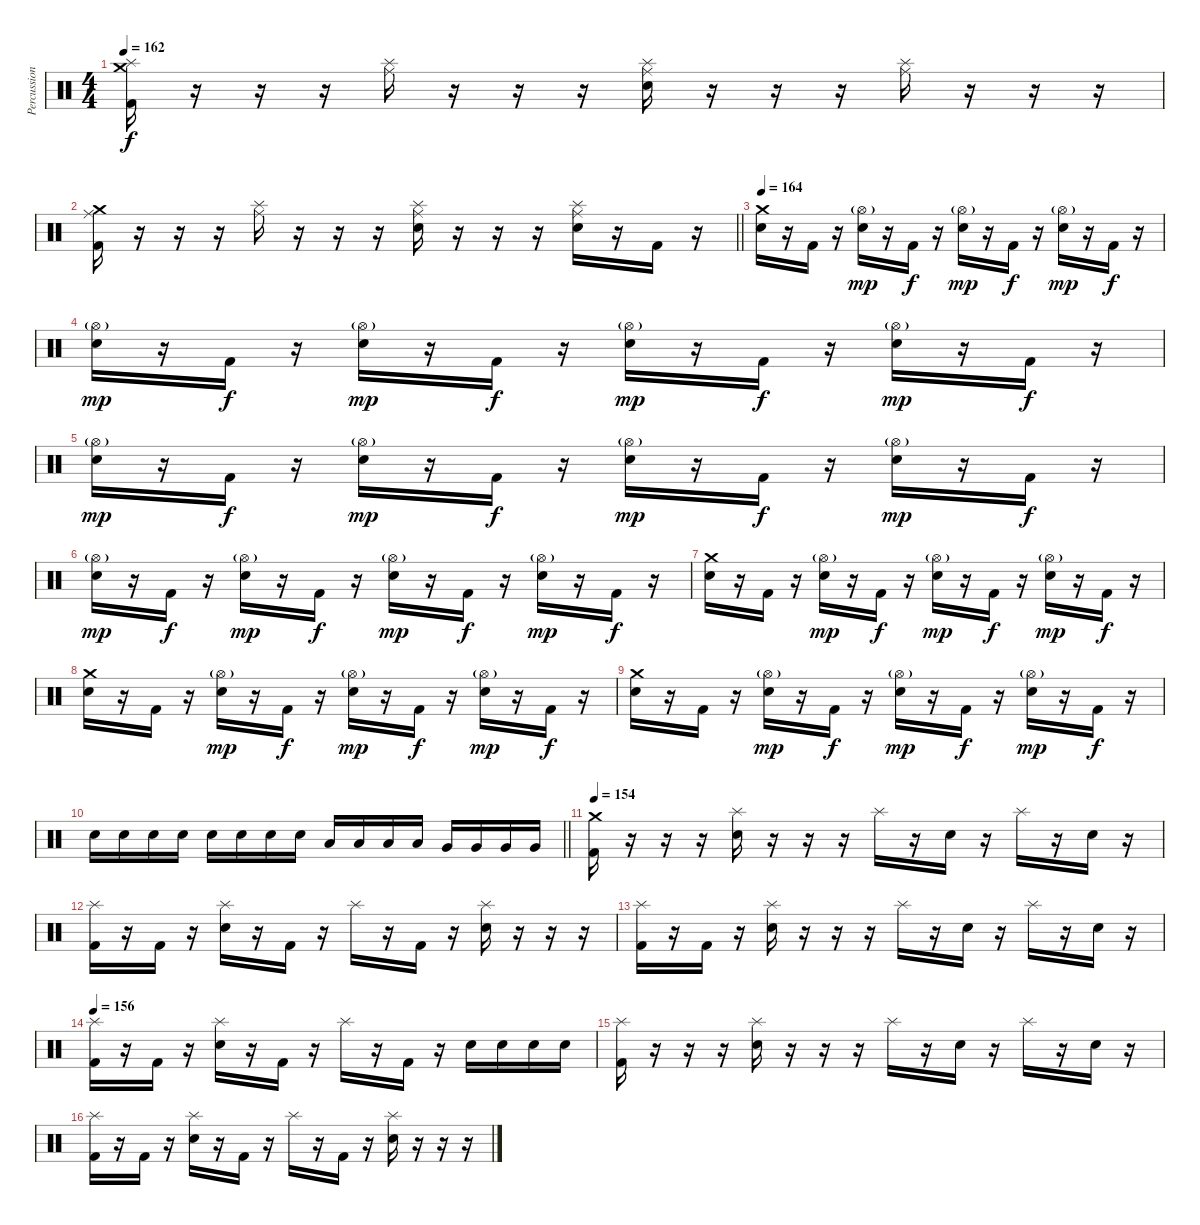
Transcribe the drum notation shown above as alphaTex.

\track ("Percussion" "Percussion") {instrument percussion}
\staff {score}
\articulation defaults
\ts (4 4)
\tempo 162
\clef neutral
\ks c
("Splash (hit)" "Crash medium (hit)" "Kick (hit) 2").16{dy f} r.16 r.16 r.16 ("Ride (middle)" "Splash (hit)").16 r.16 r.16 r.16 ("Ride (middle)" "Splash (hit)" "Electric Snare (hit)").16 r.16 r.16 r.16 ("Ride (middle)" "Splash (hit)").16 r.16 r.16 r.16 |
\barLineRight lightlight
("Ride (middle)" "Crash medium (hit)" "Kick (hit) 2").16 r.16 r.16 r.16 ("Ride (middle)" "Splash (hit)").16 r.16 r.16 r.16 ("Ride (middle)" "Splash (hit)" "Electric Snare (hit)").16 r.16 r.16 r.16 ("Ride (middle)" "Splash (hit)" "Electric Snare (hit)").16 r.16 "Kick (hit) 2".16 r.16 |
\section ("" "")
\tempo 164
("Crash medium (hit)" "Electric Snare (hit)").16 r.16 "Kick (hit) 2".16 r.16 ("Hi-Hat (open)"{g} "Electric Snare (hit)").16{dy mp} r.16 "Kick (hit) 2".16{dy f} r.16 ("Hi-Hat (open)"{g} "Electric Snare (hit)").16{dy mp} r.16 "Kick (hit) 2".16{dy f} r.16 ("Hi-Hat (open)"{g} "Electric Snare (hit)").16{dy mp} r.16 "Kick (hit) 2".16{dy f} r.16 |
("Hi-Hat (open)"{g} "Electric Snare (hit)").16{dy mp} r.16 "Kick (hit) 2".16{dy f} r.16 ("Hi-Hat (open)"{g} "Electric Snare (hit)").16{dy mp} r.16 "Kick (hit) 2".16{dy f} r.16 ("Hi-Hat (open)"{g} "Electric Snare (hit)").16{dy mp} r.16 "Kick (hit) 2".16{dy f} r.16 ("Hi-Hat (open)"{g} "Electric Snare (hit)").16{dy mp} r.16 "Kick (hit) 2".16{dy f} r.16 |
("Hi-Hat (open)"{g} "Electric Snare (hit)").16{dy mp} r.16 "Kick (hit) 2".16{dy f} r.16 ("Hi-Hat (open)"{g} "Electric Snare (hit)").16{dy mp} r.16 "Kick (hit) 2".16{dy f} r.16 ("Hi-Hat (open)"{g} "Electric Snare (hit)").16{dy mp} r.16 "Kick (hit) 2".16{dy f} r.16 ("Hi-Hat (open)"{g} "Electric Snare (hit)").16{dy mp} r.16 "Kick (hit) 2".16{dy f} r.16 |
("Hi-Hat (open)"{g} "Electric Snare (hit)").16{dy mp} r.16 "Kick (hit) 2".16{dy f} r.16 ("Hi-Hat (open)"{g} "Electric Snare (hit)").16{dy mp} r.16 "Kick (hit) 2".16{dy f} r.16 ("Hi-Hat (open)"{g} "Electric Snare (hit)").16{dy mp} r.16 "Kick (hit) 2".16{dy f} r.16 ("Hi-Hat (open)"{g} "Electric Snare (hit)").16{dy mp} r.16 "Kick (hit) 2".16{dy f} r.16 |
("Crash medium (hit)" "Electric Snare (hit)").16 r.16 "Kick (hit) 2".16 r.16 ("Hi-Hat (open)"{g} "Electric Snare (hit)").16{dy mp} r.16 "Kick (hit) 2".16{dy f} r.16 ("Hi-Hat (open)"{g} "Electric Snare (hit)").16{dy mp} r.16 "Kick (hit) 2".16{dy f} r.16 ("Hi-Hat (open)"{g} "Electric Snare (hit)").16{dy mp} r.16 "Kick (hit) 2".16{dy f} r.16 |
("Crash medium (hit)" "Electric Snare (hit)").16 r.16 "Kick (hit) 2".16 r.16 ("Hi-Hat (open)"{g} "Electric Snare (hit)").16{dy mp} r.16 "Kick (hit) 2".16{dy f} r.16 ("Hi-Hat (open)"{g} "Electric Snare (hit)").16{dy mp} r.16 "Kick (hit) 2".16{dy f} r.16 ("Hi-Hat (open)"{g} "Electric Snare (hit)").16{dy mp} r.16 "Kick (hit) 2".16{dy f} r.16 |
("Crash medium (hit)" "Electric Snare (hit)").16 r.16 "Kick (hit) 2".16 r.16 ("Hi-Hat (open)"{g} "Electric Snare (hit)").16{dy mp} r.16 "Kick (hit) 2".16{dy f} r.16 ("Hi-Hat (open)"{g} "Electric Snare (hit)").16{dy mp} r.16 "Kick (hit) 2".16{dy f} r.16 ("Hi-Hat (open)"{g} "Electric Snare (hit)").16{dy mp} r.16 "Kick (hit) 2".16{dy f} r.16 |
\barLineRight lightlight "Electric Snare (hit)".16 "Electric Snare (hit)".16 "Electric Snare (hit)".16 "Electric Snare (hit)".16 "Electric Snare (hit)".16 "Electric Snare (hit)".16 "Electric Snare (hit)".16 "Electric Snare (hit)".16 "Low Tom (hit)".16 "Low Tom (hit)".16 "Low Tom (hit)".16 "Low Tom (hit)".16 "Very Low Tom (hit)".16 "Very Low Tom (hit)".16 "Very Low Tom (hit)".16 "Very Low Tom (hit)".16
|
\section ("" "")
\tempo 154
("Crash medium (hit)" "Kick (hit) 2").16 r.16 r.16 r.16 ("Splash (hit)" "Electric Snare (hit)").16 r.16 r.16 r.16 "Splash (hit)".16 r.16 "Electric Snare (hit)".16 r.16 "Splash (hit)".16 r.16 "Electric Snare (hit)".16 r.16 |
("Splash (hit)" "Kick (hit) 2").16 r.16 "Kick (hit) 2".16 r.16 ("Splash (hit)" "Electric Snare (hit)").16 r.16 "Kick (hit) 2".16 r.16 "Splash (hit)".16 r.16 "Kick (hit) 2".16 r.16 ("Splash (hit)" "Electric Snare (hit)").16 r.16 r.16 r.16 |
("Splash (hit)" "Kick (hit) 2").16 r.16 "Kick (hit) 2".16 r.16 ("Splash (hit)" "Electric Snare (hit)").16 r.16 r.16 r.16 "Splash (hit)".16 r.16 "Electric Snare (hit)".16 r.16 "Splash (hit)".16 r.16 "Electric Snare (hit)".16 r.16 |
\tempo 156
("Splash (hit)" "Kick (hit) 2").16 r.16 "Kick (hit) 2".16 r.16 ("Splash (hit)" "Electric Snare (hit)").16 r.16 "Kick (hit) 2".16 r.16 "Splash (hit)".16 r.16 "Kick (hit) 2".16 r.16 "Electric Snare (hit)".16 "Electric Snare (hit)".16 "Electric Snare (hit)".16 "Electric Snare (hit)".16 |
("Splash (hit)" "Kick (hit) 2").16 r.16 r.16 r.16 ("Splash (hit)" "Electric Snare (hit)").16 r.16 r.16 r.16 "Splash (hit)".16 r.16 "Electric Snare (hit)".16 r.16 "Splash (hit)".16 r.16 "Electric Snare (hit)".16 r.16 |
("Splash (hit)" "Kick (hit) 2").16 r.16 "Kick (hit) 2".16 r.16 ("Splash (hit)" "Electric Snare (hit)").16 r.16 "Kick (hit) 2".16 r.16 "Splash (hit)".16 r.16 "Kick (hit) 2".16 r.16 ("Splash (hit)" "Electric Snare (hit)").16 r.16 r.16 r.16
